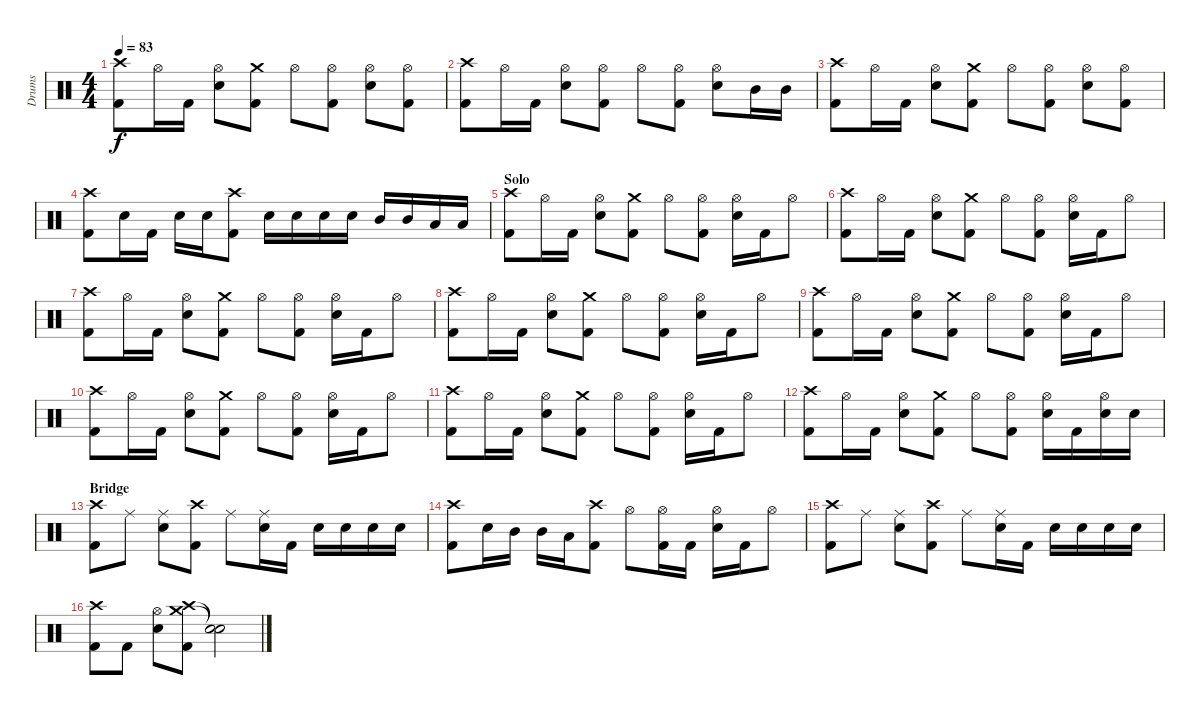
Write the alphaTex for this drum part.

\track ("Drums" "Drums") {instrument percussion}
\staff {score}
\articulation defaults
\ts (4 4)
\tempo 83
\clef neutral
\ks c
("Crash high (hit)" "Kick (hit) 2").8{dy f} "Hi-Hat (open)".16 "Kick (hit) 2".16 ("Hi-Hat (open)" "Electric Snare (hit)").8 ("Crash medium (hit)" "Kick (hit) 2").8 "Hi-Hat (open)".8 ("Hi-Hat (open)" "Kick (hit) 2").8 ("Hi-Hat (open)" "Electric Snare (hit)").8 ("Hi-Hat (open)" "Kick (hit) 2").8 |
("Crash high (hit)" "Kick (hit) 2").8 "Hi-Hat (open)".16 "Kick (hit) 2".16 ("Hi-Hat (open)" "Electric Snare (hit)").8 ("Hi-Hat (open)" "Kick (hit) 2").8 "Hi-Hat (open)".8 ("Hi-Hat (open)" "Kick (hit) 2").8 ("Hi-Hat (open)" "Electric Snare (hit)").8 "Mid Tom (hit)".16 "Mid Tom (hit)".16 |
("Crash high (hit)" "Kick (hit) 2").8 "Hi-Hat (open)".16 "Kick (hit) 2".16 ("Hi-Hat (open)" "Electric Snare (hit)").8 ("Crash medium (hit)" "Kick (hit) 2").8 "Hi-Hat (open)".8 ("Hi-Hat (open)" "Kick (hit) 2").8 ("Hi-Hat (open)" "Electric Snare (hit)").8 ("Hi-Hat (open)" "Kick (hit) 2").8 |
("Crash high (hit)" "Kick (hit) 2").8 "Electric Snare (hit)".16 "Kick (hit) 2".16 "Electric Snare (hit)".16 "Electric Snare (hit)".16 ("Crash high (hit)" "Kick (hit) 2").8 "Electric Snare (hit)".16 "Electric Snare (hit)".16 "Electric Snare (hit)".16 "Electric Snare (hit)".16 "Mid Tom (hit)".16 "Mid Tom (hit)".16 "Low Tom (hit)".16 "Low Tom (hit)".16 |
\section ("" "Solo")
("Crash high (hit)" "Kick (hit) 2").8 "Hi-Hat (open)".16 "Kick (hit) 2".16 ("Hi-Hat (open)" "Electric Snare (hit)").8 ("Crash medium (hit)" "Kick (hit) 2").8 "Hi-Hat (open)".8 ("Hi-Hat (open)" "Kick (hit) 2").8 ("Hi-Hat (open)" "Electric Snare (hit)").16 "Kick (hit) 2".16 "Hi-Hat (open)".8 |
("Crash high (hit)" "Kick (hit) 2").8 "Hi-Hat (open)".16 "Kick (hit) 2".16 ("Hi-Hat (open)" "Electric Snare (hit)").8 ("Crash medium (hit)" "Kick (hit) 2").8 "Hi-Hat (open)".8 ("Hi-Hat (open)" "Kick (hit) 2").8 ("Hi-Hat (open)" "Electric Snare (hit)").16 "Kick (hit) 2".16 "Hi-Hat (open)".8 |
("Crash high (hit)" "Kick (hit) 2").8 "Hi-Hat (open)".16 "Kick (hit) 2".16 ("Hi-Hat (open)" "Electric Snare (hit)").8 ("Crash medium (hit)" "Kick (hit) 2").8 "Hi-Hat (open)".8 ("Hi-Hat (open)" "Kick (hit) 2").8 ("Hi-Hat (open)" "Electric Snare (hit)").16 "Kick (hit) 2".16 "Hi-Hat (open)".8 |
("Crash high (hit)" "Kick (hit) 2").8 "Hi-Hat (open)".16 "Kick (hit) 2".16 ("Hi-Hat (open)" "Electric Snare (hit)").8 ("Crash medium (hit)" "Kick (hit) 2").8 "Hi-Hat (open)".8 ("Hi-Hat (open)" "Kick (hit) 2").8 ("Hi-Hat (open)" "Electric Snare (hit)").16 "Kick (hit) 2".16 "Hi-Hat (open)".8 |
("Crash high (hit)" "Kick (hit) 2").8 "Hi-Hat (open)".16 "Kick (hit) 2".16 ("Hi-Hat (open)" "Electric Snare (hit)").8 ("Crash medium (hit)" "Kick (hit) 2").8 "Hi-Hat (open)".8 ("Hi-Hat (open)" "Kick (hit) 2").8 ("Hi-Hat (open)" "Electric Snare (hit)").16 "Kick (hit) 2".16 "Hi-Hat (open)".8 |
("Crash high (hit)" "Kick (hit) 2").8 "Hi-Hat (open)".16 "Kick (hit) 2".16 ("Hi-Hat (open)" "Electric Snare (hit)").8 ("Crash medium (hit)" "Kick (hit) 2").8 "Hi-Hat (open)".8 ("Hi-Hat (open)" "Kick (hit) 2").8 ("Hi-Hat (open)" "Electric Snare (hit)").16 "Kick (hit) 2".16 "Hi-Hat (open)".8 |
("Crash high (hit)" "Kick (hit) 2").8 "Hi-Hat (open)".16 "Kick (hit) 2".16 ("Hi-Hat (open)" "Electric Snare (hit)").8 ("Crash medium (hit)" "Kick (hit) 2").8 "Hi-Hat (open)".8 ("Hi-Hat (open)" "Kick (hit) 2").8 ("Hi-Hat (open)" "Electric Snare (hit)").16 "Kick (hit) 2".16 "Hi-Hat (open)".8 |
("Crash high (hit)" "Kick (hit) 2").8 "Hi-Hat (open)".16 "Kick (hit) 2".16 ("Hi-Hat (open)" "Electric Snare (hit)").8 ("Crash medium (hit)" "Kick (hit) 2").8 "Hi-Hat (open)".8 ("Hi-Hat (open)" "Kick (hit) 2").8 ("Hi-Hat (open)" "Electric Snare (hit)").16 "Kick (hit) 2".16 ("Hi-Hat (open)" "Electric Snare (hit)").16 "Electric Snare (hit)".16 |
\section ("" "Bridge")
("Crash high (hit)" "Kick (hit) 2").8 "Ride (middle)".8 ("Ride (middle)" "Electric Snare (hit)").8 ("Crash high (hit)" "Kick (hit) 2").8 "Ride (middle)".8 ("Ride (middle)" "Electric Snare (hit)").16 "Kick (hit) 2".16 "Electric Snare (hit)".16 "Electric Snare (hit)".16 "Electric Snare (hit)".16 "Electric Snare (hit)".16 |
("Crash high (hit)" "Kick (hit) 2").8 "Electric Snare (hit)".16 "Mid Tom (hit)".16 "Mid Tom (hit)".16 "Low Tom (hit)".16 ("Crash high (hit)" "Kick (hit) 2").8 "Hi-Hat (open)".8 ("Hi-Hat (open)" "Kick (hit) 2").16 "Kick (hit) 2".16 ("Hi-Hat (open)" "Electric Snare (hit)").16 "Kick (hit) 2".16 "Hi-Hat (open)".8 |
("Crash high (hit)" "Kick (hit) 2").8 "Ride (middle)".8 ("Ride (middle)" "Electric Snare (hit)").8 ("Crash high (hit)" "Kick (hit) 2").8 "Ride (middle)".8 ("Ride (middle)" "Electric Snare (hit)").16 "Kick (hit) 2".16 "Electric Snare (hit)".16 "Electric Snare (hit)".16 "Electric Snare (hit)".16 "Electric Snare (hit)".16 |
("Crash high (hit)" "Kick (hit) 2").8 "Kick (hit) 2".8 ("Hi-Hat (open)" "Electric Snare (hit)").8 ("Crash high (hit)" "Crash medium (hit)" "Kick (hit) 2").8 ("Snare (hit)"{t} "Snare (hit)"{t}).2
